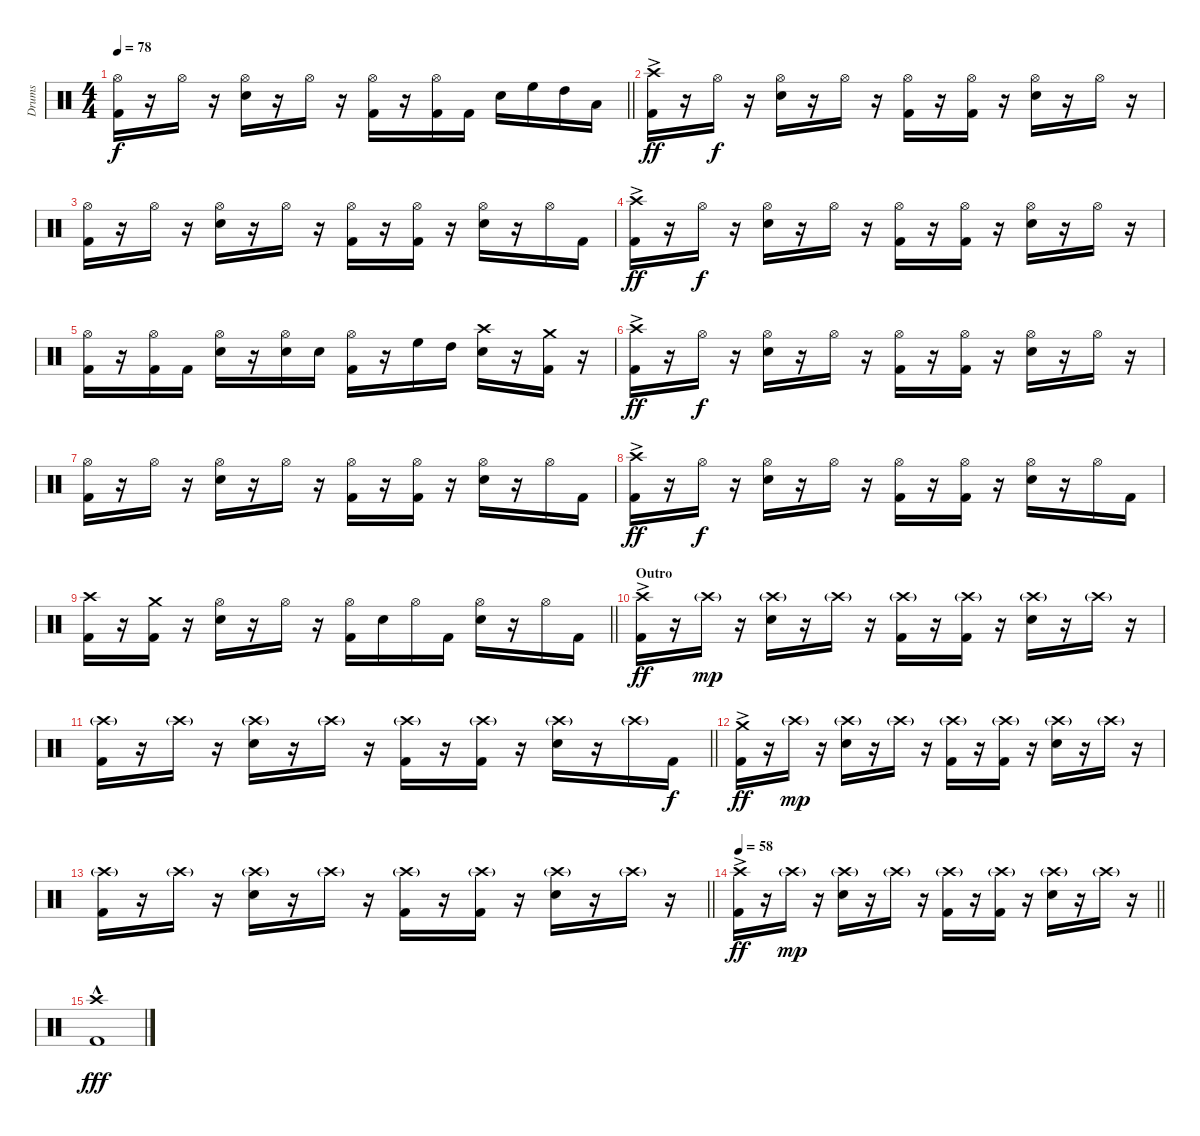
\track ("Drums" "Drums") {instrument percussion}
\staff {score}
\articulation defaults
\ts (4 4)
\tempo 78
\clef neutral
\barLineRight lightlight
\ks c
("Hi-Hat (open)" "Kick (hit) 2").16{dy f} r.16 "Hi-Hat (open)".16 r.16 ("Hi-Hat (open)" "Snare (hit) 2").16 r.16 "Hi-Hat (open)".16 r.16 ("Hi-Hat (open)" "Kick (hit) 2").16 r.16 ("Hi-Hat (open)" "Kick (hit) 2").16 "Kick (hit) 2".16 "Snare (hit) 2".16 "High Floor Tom (hit)".16 "High Tom (hit)".16 "Low Floor Tom (hit)".16 |
("Crash high (hit)"{ac} "Kick (hit) 2").16{dy ff} r.16 "Hi-Hat (open)".16{dy f} r.16 ("Hi-Hat (open)" "Snare (hit) 2").16 r.16 "Hi-Hat (open)".16 r.16 ("Hi-Hat (open)" "Kick (hit) 2").16 r.16 ("Hi-Hat (open)" "Kick (hit) 2").16 r.16 ("Hi-Hat (open)" "Snare (hit) 2").16 r.16 "Hi-Hat (open)".16 r.16 |
("Hi-Hat (open)" "Kick (hit) 2").16 r.16 "Hi-Hat (open)".16 r.16 ("Hi-Hat (open)" "Snare (hit) 2").16 r.16 "Hi-Hat (open)".16 r.16 ("Hi-Hat (open)" "Kick (hit) 2").16 r.16 ("Hi-Hat (open)" "Kick (hit) 2").16 r.16 ("Hi-Hat (open)" "Snare (hit) 2").16 r.16 "Hi-Hat (open)".16 "Kick (hit) 2".16 |
("Crash high (hit)"{ac} "Kick (hit) 2").16{dy ff} r.16 "Hi-Hat (open)".16{dy f} r.16 ("Hi-Hat (open)" "Snare (hit) 2").16 r.16 "Hi-Hat (open)".16 r.16 ("Hi-Hat (open)" "Kick (hit) 2").16 r.16 ("Hi-Hat (open)" "Kick (hit) 2").16 r.16 ("Hi-Hat (open)" "Snare (hit) 2").16 r.16 "Hi-Hat (open)".16 r.16 |
("Hi-Hat (open)" "Kick (hit) 2").16 r.16 ("Hi-Hat (open)" "Kick (hit) 2").16 "Kick (hit) 2".16 ("Hi-Hat (open)" "Snare (hit) 2").16 r.16 ("Hi-Hat (open)" "Snare (hit) 2").16 "Snare (hit) 2".16 ("Hi-Hat (open)" "Kick (hit) 2").16 r.16 "High Floor Tom (hit)".16 "High Tom (hit)".16 ("Crash high (hit)" "Snare (hit) 2").16 r.16 ("Crash medium (hit)" "Kick (hit) 2").16 r.16 |
("Crash high (hit)"{ac} "Kick (hit) 2").16{dy ff} r.16 "Hi-Hat (open)".16{dy f} r.16 ("Hi-Hat (open)" "Snare (hit) 2").16 r.16 "Hi-Hat (open)".16 r.16 ("Hi-Hat (open)" "Kick (hit) 2").16 r.16 ("Hi-Hat (open)" "Kick (hit) 2").16 r.16 ("Hi-Hat (open)" "Snare (hit) 2").16 r.16 "Hi-Hat (open)".16 r.16 |
("Hi-Hat (open)" "Kick (hit) 2").16 r.16 "Hi-Hat (open)".16 r.16 ("Hi-Hat (open)" "Snare (hit) 2").16 r.16 "Hi-Hat (open)".16 r.16 ("Hi-Hat (open)" "Kick (hit) 2").16 r.16 ("Hi-Hat (open)" "Kick (hit) 2").16 r.16 ("Hi-Hat (open)" "Snare (hit) 2").16 r.16 "Hi-Hat (open)".16 "Kick (hit) 2".16 |
("Crash high (hit)"{ac} "Kick (hit) 2").16{dy ff} r.16 "Hi-Hat (open)".16{dy f} r.16 ("Hi-Hat (open)" "Snare (hit) 2").16 r.16 "Hi-Hat (open)".16 r.16 ("Hi-Hat (open)" "Kick (hit) 2").16 r.16 ("Hi-Hat (open)" "Kick (hit) 2").16 r.16 ("Hi-Hat (open)" "Snare (hit) 2").16 r.16 "Hi-Hat (open)".16 "Kick (hit) 2".16 |
\barLineRight lightlight
("Crash high (hit)" "Kick (hit) 2").16 r.16 ("Crash medium (hit)" "Kick (hit) 2").16 r.16 ("Hi-Hat (open)" "Snare (hit) 2").16 r.16 "Hi-Hat (open)".16 r.16 ("Hi-Hat (open)" "Kick (hit) 2").16 "Snare (hit) 2".16 "Hi-Hat (open)".16 "Kick (hit) 2".16 ("Hi-Hat (open)" "Snare (hit) 2").16 r.16 "Hi-Hat (open)".16 "Kick (hit) 2".16 |
\section ("" "Outro")
("Crash high (hit)"{ac} "Kick (hit) 2").16{dy ff} r.16 "Crash high (hit)"{g}.16{dy mp} r.16 ("Crash high (hit)"{g} "Snare (hit) 2").16 r.16 "Crash high (hit)"{g}.16 r.16 ("Crash high (hit)"{g} "Kick (hit) 2").16 r.16 ("Crash high (hit)"{g} "Kick (hit) 2").16 r.16 ("Crash high (hit)"{g} "Snare (hit) 2").16 r.16 "Crash high (hit)"{g}.16 r.16 |
\barLineRight lightlight
("Crash high (hit)"{g} "Kick (hit) 2").16 r.16 "Crash high (hit)"{g}.16 r.16 ("Crash high (hit)"{g} "Snare (hit) 2").16 r.16 "Crash high (hit)"{g}.16 r.16 ("Crash high (hit)"{g} "Kick (hit) 2").16 r.16 ("Crash high (hit)"{g} "Kick (hit) 2").16 r.16 ("Crash high (hit)"{g} "Snare (hit) 2").16 r.16 "Crash high (hit)"{g}.16 "Kick (hit) 2".16{dy f} |
("Crash medium (hit)"{ac} "Kick (hit) 2").16{dy ff} r.16 "Crash high (hit)"{g}.16{dy mp} r.16 ("Crash high (hit)"{g} "Snare (hit) 2").16 r.16 "Crash high (hit)"{g}.16 r.16 ("Crash high (hit)"{g} "Kick (hit) 2").16 r.16 ("Crash high (hit)"{g} "Kick (hit) 2").16 r.16 ("Crash high (hit)"{g} "Snare (hit) 2").16 r.16 "Crash high (hit)"{g}.16 r.16 |
\barLineRight lightlight
("Crash high (hit)"{g} "Kick (hit) 2").16 r.16 "Crash high (hit)"{g}.16 r.16 ("Crash high (hit)"{g} "Snare (hit) 2").16 r.16 "Crash high (hit)"{g}.16 r.16 ("Crash high (hit)"{g} "Kick (hit) 2").16 r.16 ("Crash high (hit)"{g} "Kick (hit) 2").16 r.16 ("Crash high (hit)"{g} "Snare (hit) 2").16 r.16 "Crash high (hit)"{g}.16 r.16 |
\tempo 58
\barLineRight lightlight
("Crash high (hit)"{ac} "Kick (hit) 2").16{dy ff} r.16 "Crash high (hit)"{g}.16{dy mp} r.16 ("Crash high (hit)"{g} "Snare (hit) 2").16 r.16 "Crash high (hit)"{g}.16 r.16 ("Crash high (hit)"{g} "Kick (hit) 2").16 r.16 ("Crash high (hit)"{g} "Kick (hit) 2").16 r.16 ("Crash high (hit)"{g} "Snare (hit) 2").16 r.16 "Crash high (hit)"{g}.16 r.16 |
("Crash high (hit)"{hac} "Kick (hit) 2").1{dy fff}
